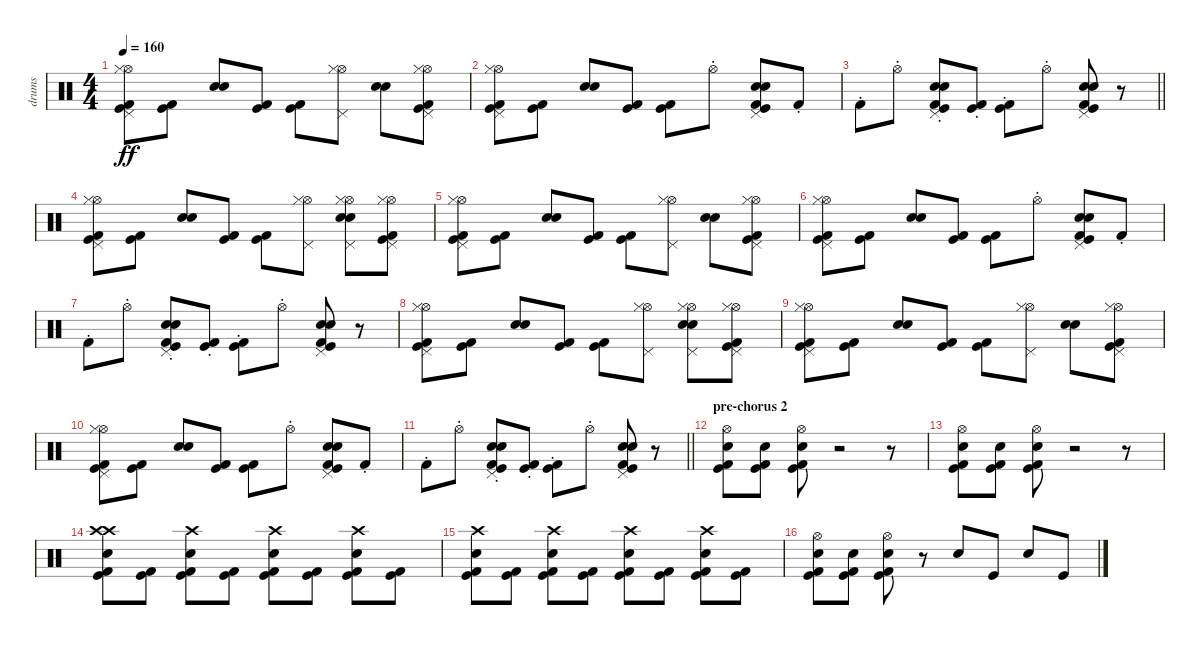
\track ("drums" "drums") {instrument percussion}
\staff {score}
\articulation defaults
\ts (4 4)
\tempo 160
\clef neutral
\ks c
("Hi-Hat (open)" "Pedal Hi-Hat (hit)" "Hi-Hat (closed)" "Kick (hit)" "Kick (hit) 2").8{dy ff} ("Kick (hit)" "Kick (hit) 2").8 ("Electric Snare (hit)" "Snare (hit) 2").8 ("Kick (hit)" "Kick (hit) 2").8 ("Kick (hit)" "Kick (hit) 2").8 ("Hi-Hat (open)" "Pedal Hi-Hat (hit)" "Hi-Hat (closed)").8 ("Electric Snare (hit)" "Snare (hit) 2").8 ("Hi-Hat (open)" "Pedal Hi-Hat (hit)" "Hi-Hat (closed)" "Kick (hit)" "Kick (hit) 2").8 |
("Hi-Hat (open)" "Pedal Hi-Hat (hit)" "Hi-Hat (closed)" "Kick (hit)" "Kick (hit) 2").8 ("Kick (hit)" "Kick (hit) 2").8 ("Electric Snare (hit)" "Snare (hit) 2").8 ("Kick (hit)" "Kick (hit) 2").8 ("Kick (hit)" "Kick (hit) 2").8 "Hi-Hat (open)"{st}.8 ("Electric Snare (hit)" "Pedal Hi-Hat (hit)" "Snare (hit) 2" "Kick (hit)" "Kick (hit) 2").8 "Kick (hit) 2"{st}.8 |
\barLineRight lightlight "Kick (hit) 2"{st}.8 "Hi-Hat (open)"{st}.8
("Electric Snare (hit)"{st} "Pedal Hi-Hat (hit)"{st} "Snare (hit) 2"{st} "Kick (hit)"{st} "Kick (hit) 2"{st}).8 ("Kick (hit)"{st} "Kick (hit) 2"{st}).8 ("Kick (hit)"{st} "Kick (hit) 2"{st}).8 "Hi-Hat (open)"{st}.8 ("Electric Snare (hit)" "Pedal Hi-Hat (hit)" "Snare (hit) 2" "Kick (hit)" "Kick (hit) 2").8 r.8 |
("Hi-Hat (open)" "Hi-Hat (closed)" "Pedal Hi-Hat (hit)" "Kick (hit)" "Kick (hit) 2").8 ("Kick (hit)" "Kick (hit) 2").8 ("Electric Snare (hit)" "Snare (hit) 2").8 ("Kick (hit)" "Kick (hit) 2").8 ("Kick (hit)" "Kick (hit) 2").8 ("Hi-Hat (open)" "Pedal Hi-Hat (hit)" "Hi-Hat (closed)").8 ("Hi-Hat (open)" "Electric Snare (hit)" "Pedal Hi-Hat (hit)" "Hi-Hat (closed)" "Snare (hit) 2").8 ("Hi-Hat (open)" "Pedal Hi-Hat (hit)" "Hi-Hat (closed)" "Kick (hit)" "Kick (hit) 2").8 |
("Hi-Hat (open)" "Pedal Hi-Hat (hit)" "Hi-Hat (closed)" "Kick (hit)" "Kick (hit) 2").8 ("Kick (hit)" "Kick (hit) 2").8 ("Electric Snare (hit)" "Snare (hit) 2").8 ("Kick (hit)" "Kick (hit) 2").8 ("Kick (hit)" "Kick (hit) 2").8 ("Hi-Hat (open)" "Pedal Hi-Hat (hit)" "Hi-Hat (closed)").8 ("Electric Snare (hit)" "Snare (hit) 2").8 ("Hi-Hat (open)" "Pedal Hi-Hat (hit)" "Hi-Hat (closed)" "Kick (hit)" "Kick (hit) 2").8 |
("Hi-Hat (open)" "Pedal Hi-Hat (hit)" "Hi-Hat (closed)" "Kick (hit)" "Kick (hit) 2").8 ("Kick (hit)" "Kick (hit) 2").8 ("Electric Snare (hit)" "Snare (hit) 2").8 ("Kick (hit)" "Kick (hit) 2").8 ("Kick (hit)" "Kick (hit) 2").8 "Hi-Hat (open)"{st}.8 ("Electric Snare (hit)" "Pedal Hi-Hat (hit)" "Snare (hit) 2" "Kick (hit)" "Kick (hit) 2").8 "Kick (hit) 2"{st}.8 |
"Kick (hit) 2"{st}.8 "Hi-Hat (open)"{st}.8 ("Electric Snare (hit)"{st} "Pedal Hi-Hat (hit)"{st} "Snare (hit) 2"{st} "Kick (hit)"{st} "Kick (hit) 2"{st}).8 ("Kick (hit)"{st} "Kick (hit) 2"{st}).8 ("Kick (hit)"{st} "Kick (hit) 2"{st}).8 "Hi-Hat (open)"{st}.8 ("Electric Snare (hit)" "Pedal Hi-Hat (hit)" "Snare (hit) 2" "Kick (hit)" "Kick (hit) 2").8 r.8 |
("Hi-Hat (open)" "Hi-Hat (closed)" "Pedal Hi-Hat (hit)" "Kick (hit)" "Kick (hit) 2").8 ("Kick (hit)" "Kick (hit) 2").8 ("Electric Snare (hit)" "Snare (hit) 2").8 ("Kick (hit)" "Kick (hit) 2").8 ("Kick (hit)" "Kick (hit) 2").8 ("Hi-Hat (open)" "Pedal Hi-Hat (hit)" "Hi-Hat (closed)").8 ("Hi-Hat (open)" "Electric Snare (hit)" "Pedal Hi-Hat (hit)" "Hi-Hat (closed)" "Snare (hit) 2").8 ("Hi-Hat (open)" "Pedal Hi-Hat (hit)" "Hi-Hat (closed)" "Kick (hit)" "Kick (hit) 2").8 |
("Hi-Hat (open)" "Pedal Hi-Hat (hit)" "Hi-Hat (closed)" "Kick (hit)" "Kick (hit) 2").8 ("Kick (hit)" "Kick (hit) 2").8 ("Electric Snare (hit)" "Snare (hit) 2").8 ("Kick (hit)" "Kick (hit) 2").8 ("Kick (hit)" "Kick (hit) 2").8 ("Hi-Hat (open)" "Pedal Hi-Hat (hit)" "Hi-Hat (closed)").8 ("Electric Snare (hit)" "Snare (hit) 2").8 ("Hi-Hat (open)" "Pedal Hi-Hat (hit)" "Hi-Hat (closed)" "Kick (hit)" "Kick (hit) 2").8 |
("Hi-Hat (open)" "Pedal Hi-Hat (hit)" "Hi-Hat (closed)" "Kick (hit)" "Kick (hit) 2").8 ("Kick (hit)" "Kick (hit) 2").8 ("Electric Snare (hit)" "Snare (hit) 2").8 ("Kick (hit)" "Kick (hit) 2").8 ("Kick (hit)" "Kick (hit) 2").8 "Hi-Hat (open)"{st}.8 ("Electric Snare (hit)" "Pedal Hi-Hat (hit)" "Snare (hit) 2" "Kick (hit)" "Kick (hit) 2").8 "Kick (hit) 2"{st}.8 |
\barLineRight lightlight "Kick (hit) 2"{st}.8 "Hi-Hat (open)"{st}.8
("Electric Snare (hit)"{st} "Pedal Hi-Hat (hit)"{st} "Snare (hit) 2"{st} "Kick (hit)"{st} "Kick (hit) 2"{st}).8 ("Kick (hit)"{st} "Kick (hit) 2"{st}).8 ("Kick (hit)"{st} "Kick (hit) 2"{st}).8 "Hi-Hat (open)"{st}.8 ("Electric Snare (hit)" "Pedal Hi-Hat (hit)" "Snare (hit) 2" "Kick (hit)" "Kick (hit) 2").8 r.8 |
\section ("" "pre-chorus 2")
("Hi-Hat (open)" "Electric Snare (hit)" "Kick (hit) 2" "Kick (hit)").8 ("Electric Snare (hit)" "Kick (hit) 2" "Kick (hit)").8 ("Hi-Hat (open)" "Electric Snare (hit)" "Kick (hit) 2" "Kick (hit)").8 r.2 r.8 |
("Hi-Hat (open)" "Electric Snare (hit)" "Kick (hit) 2" "Kick (hit)").8 ("Electric Snare (hit)" "Kick (hit) 2" "Kick (hit)").8 ("Hi-Hat (open)" "Electric Snare (hit)" "Kick (hit) 2" "Kick (hit)").8 r.2 r.8 |
("Crash high (hit)" "Crash high (hit)" "Electric Snare (hit)" "Kick (hit) 2" "Kick (hit)").8 ("Kick (hit) 2" "Kick (hit)").8 ("Crash high (hit)" "Electric Snare (hit)" "Kick (hit) 2" "Kick (hit)").8 ("Kick (hit) 2" "Kick (hit)").8 ("Crash high (hit)" "Electric Snare (hit)" "Kick (hit) 2" "Kick (hit)").8 ("Kick (hit) 2" "Kick (hit)").8 ("Crash high (hit)" "Electric Snare (hit)" "Kick (hit) 2" "Kick (hit)").8 ("Kick (hit) 2" "Kick (hit)").8 |
("Crash high (hit)" "Electric Snare (hit)" "Kick (hit) 2" "Kick (hit)").8 ("Kick (hit) 2" "Kick (hit)").8 ("Crash high (hit)" "Electric Snare (hit)" "Kick (hit) 2" "Kick (hit)").8 ("Kick (hit) 2" "Kick (hit)").8 ("Crash high (hit)" "Electric Snare (hit)" "Kick (hit) 2" "Kick (hit)").8 ("Kick (hit) 2" "Kick (hit)").8 ("Crash high (hit)" "Electric Snare (hit)" "Kick (hit) 2" "Kick (hit)").8 ("Kick (hit) 2" "Kick (hit)").8 |
("Hi-Hat (open)" "Electric Snare (hit)" "Kick (hit) 2" "Kick (hit)").8 ("Electric Snare (hit)" "Kick (hit) 2" "Kick (hit)").8 ("Hi-Hat (open)" "Electric Snare (hit)" "Kick (hit) 2" "Kick (hit)").8 r.8 "Electric Snare (hit)".8 "Kick (hit)".8 "Electric Snare (hit)".8 "Kick (hit)".8
